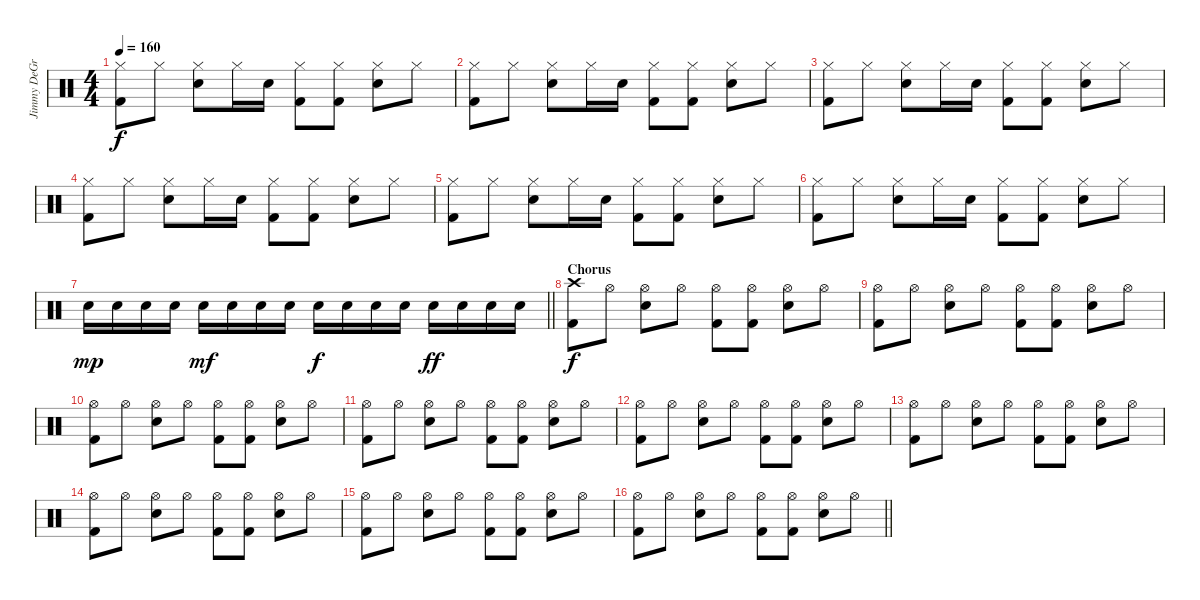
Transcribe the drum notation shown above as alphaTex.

\track ("Jimmy DeGrasso" "Jimmy DeGr") {instrument percussion}
\staff {score}
\articulation defaults
\ts (4 4)
\tempo 160
\clef neutral
\ks c
("Hi-Hat (closed)" "Kick (hit) 2").8{dy f} "Hi-Hat (closed)".8 ("Hi-Hat (closed)" "Snare (hit) 2").8 "Hi-Hat (closed)".16 "Snare (hit) 2".16 ("Hi-Hat (closed)" "Kick (hit) 2").8 ("Hi-Hat (closed)" "Kick (hit) 2").8 ("Hi-Hat (closed)" "Snare (hit) 2").8 "Hi-Hat (closed)".8 |
("Hi-Hat (closed)" "Kick (hit) 2").8 "Hi-Hat (closed)".8 ("Hi-Hat (closed)" "Snare (hit) 2").8 "Hi-Hat (closed)".16 "Snare (hit) 2".16 ("Hi-Hat (closed)" "Kick (hit) 2").8 ("Hi-Hat (closed)" "Kick (hit) 2").8 ("Hi-Hat (closed)" "Snare (hit) 2").8 "Hi-Hat (closed)".8 |
("Hi-Hat (closed)" "Kick (hit) 2").8 "Hi-Hat (closed)".8 ("Hi-Hat (closed)" "Snare (hit) 2").8 "Hi-Hat (closed)".16 "Snare (hit) 2".16 ("Hi-Hat (closed)" "Kick (hit) 2").8 ("Hi-Hat (closed)" "Kick (hit) 2").8 ("Hi-Hat (closed)" "Snare (hit) 2").8 "Hi-Hat (closed)".8 |
("Hi-Hat (closed)" "Kick (hit) 2").8 "Hi-Hat (closed)".8 ("Hi-Hat (closed)" "Snare (hit) 2").8 "Hi-Hat (closed)".16 "Snare (hit) 2".16 ("Hi-Hat (closed)" "Kick (hit) 2").8 ("Hi-Hat (closed)" "Kick (hit) 2").8 ("Hi-Hat (closed)" "Snare (hit) 2").8 "Hi-Hat (closed)".8 |
("Hi-Hat (closed)" "Kick (hit) 2").8 "Hi-Hat (closed)".8 ("Hi-Hat (closed)" "Snare (hit) 2").8 "Hi-Hat (closed)".16 "Snare (hit) 2".16 ("Hi-Hat (closed)" "Kick (hit) 2").8 ("Hi-Hat (closed)" "Kick (hit) 2").8 ("Hi-Hat (closed)" "Snare (hit) 2").8 "Hi-Hat (closed)".8 |
("Hi-Hat (closed)" "Kick (hit) 2").8 "Hi-Hat (closed)".8 ("Hi-Hat (closed)" "Snare (hit) 2").8 "Hi-Hat (closed)".16 "Snare (hit) 2".16 ("Hi-Hat (closed)" "Kick (hit) 2").8 ("Hi-Hat (closed)" "Kick (hit) 2").8 ("Hi-Hat (closed)" "Snare (hit) 2").8 "Hi-Hat (closed)".8 |
\barLineRight lightlight "Snare (hit) 2".16{dy mp} "Snare (hit) 2".16 "Snare (hit) 2".16 "Snare (hit) 2".16 "Snare (hit) 2".16{dy mf} "Snare (hit) 2".16 "Snare (hit) 2".16 "Snare (hit) 2".16 "Snare (hit) 2".16{dy f} "Snare (hit) 2".16 "Snare (hit) 2".16 "Snare (hit) 2".16 "Snare (hit) 2".16{dy ff} "Snare (hit) 2".16 "Snare (hit) 2".16 "Snare (hit) 2".16
|
\section ("" "Chorus")
("Crash high (hit)" "Kick (hit) 2").8{dy f} "Hi-Hat (open)".8 ("Hi-Hat (open)" "Snare (hit) 2").8 "Hi-Hat (open)".8 ("Hi-Hat (open)" "Kick (hit) 2").8 ("Hi-Hat (open)" "Kick (hit) 2").8 ("Hi-Hat (open)" "Snare (hit) 2").8 "Hi-Hat (open)".8 |
("Hi-Hat (open)" "Kick (hit) 2").8 "Hi-Hat (open)".8 ("Hi-Hat (open)" "Snare (hit) 2").8 "Hi-Hat (open)".8 ("Hi-Hat (open)" "Kick (hit) 2").8 ("Hi-Hat (open)" "Kick (hit) 2").8 ("Hi-Hat (open)" "Snare (hit) 2").8 "Hi-Hat (open)".8 |
("Hi-Hat (open)" "Kick (hit) 2").8 "Hi-Hat (open)".8 ("Hi-Hat (open)" "Snare (hit) 2").8 "Hi-Hat (open)".8 ("Hi-Hat (open)" "Kick (hit) 2").8 ("Hi-Hat (open)" "Kick (hit) 2").8 ("Hi-Hat (open)" "Snare (hit) 2").8 "Hi-Hat (open)".8 |
("Hi-Hat (open)" "Kick (hit) 2").8 "Hi-Hat (open)".8 ("Hi-Hat (open)" "Snare (hit) 2").8 "Hi-Hat (open)".8 ("Hi-Hat (open)" "Kick (hit) 2").8 ("Hi-Hat (open)" "Kick (hit) 2").8 ("Hi-Hat (open)" "Snare (hit) 2").8 "Hi-Hat (open)".8 |
("Hi-Hat (open)" "Kick (hit) 2").8 "Hi-Hat (open)".8 ("Hi-Hat (open)" "Snare (hit) 2").8 "Hi-Hat (open)".8 ("Hi-Hat (open)" "Kick (hit) 2").8 ("Hi-Hat (open)" "Kick (hit) 2").8 ("Hi-Hat (open)" "Snare (hit) 2").8 "Hi-Hat (open)".8 |
("Hi-Hat (open)" "Kick (hit) 2").8 "Hi-Hat (open)".8 ("Hi-Hat (open)" "Snare (hit) 2").8 "Hi-Hat (open)".8 ("Hi-Hat (open)" "Kick (hit) 2").8 ("Hi-Hat (open)" "Kick (hit) 2").8 ("Hi-Hat (open)" "Snare (hit) 2").8 "Hi-Hat (open)".8 |
("Hi-Hat (open)" "Kick (hit) 2").8 "Hi-Hat (open)".8 ("Hi-Hat (open)" "Snare (hit) 2").8 "Hi-Hat (open)".8 ("Hi-Hat (open)" "Kick (hit) 2").8 ("Hi-Hat (open)" "Kick (hit) 2").8 ("Hi-Hat (open)" "Snare (hit) 2").8 "Hi-Hat (open)".8 |
("Hi-Hat (open)" "Kick (hit) 2").8 "Hi-Hat (open)".8 ("Hi-Hat (open)" "Snare (hit) 2").8 "Hi-Hat (open)".8 ("Hi-Hat (open)" "Kick (hit) 2").8 ("Hi-Hat (open)" "Kick (hit) 2").8 ("Hi-Hat (open)" "Snare (hit) 2").8 "Hi-Hat (open)".8 |
\barLineRight lightlight
("Hi-Hat (open)" "Kick (hit) 2").8 "Hi-Hat (open)".8 ("Hi-Hat (open)" "Snare (hit) 2").8 "Hi-Hat (open)".8 ("Hi-Hat (open)" "Kick (hit) 2").8 ("Hi-Hat (open)" "Kick (hit) 2").8 ("Hi-Hat (open)" "Snare (hit) 2").8 "Hi-Hat (open)".8
